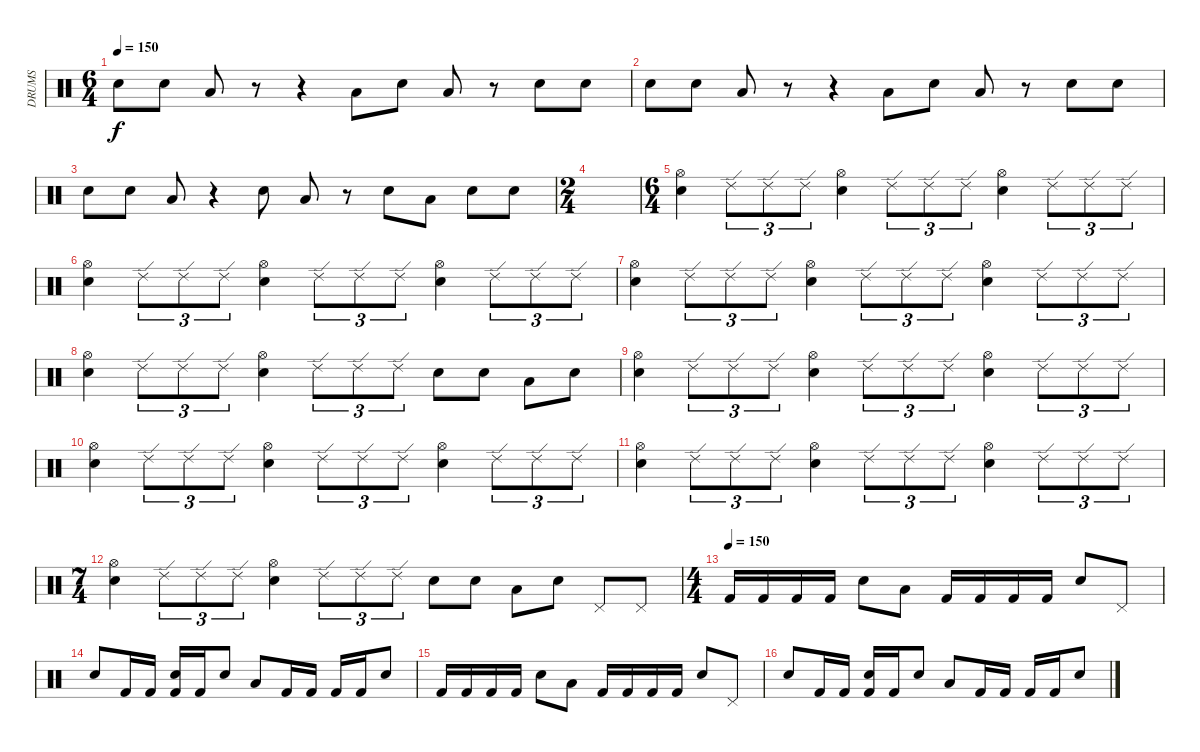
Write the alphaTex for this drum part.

\track ("DRUMS" "DRUMS") {instrument percussion}
\staff {score}
\articulation defaults
\ts (6 4)
\tempo 150
\clef neutral
\ks c "Electric Snare (hit)".8{dy f} "Electric Snare (hit)".8 "Low Tom (hit)".8
r.8 r.4 "Low Tom (hit)".8 "Electric Snare (hit)".8 "Low Tom (hit)".8 r.8 "Electric Snare (hit)".8 "Electric Snare (hit)".8 |
"Electric Snare (hit)".8 "Electric Snare (hit)".8 "Low Tom (hit)".8 r.8 r.4 "Low Tom (hit)".8 "Electric Snare (hit)".8 "Low Tom (hit)".8 r.8 "Electric Snare (hit)".8 "Electric Snare (hit)".8 |
"Electric Snare (hit)".8 "Electric Snare (hit)".8 "Low Tom (hit)".8 r.4 "Electric Snare (hit)".8 "Low Tom (hit)".8 r.8 "Electric Snare (hit)".8 "Low Tom (hit)".8 "Electric Snare (hit)".8 "Electric Snare (hit)".8 |
\ts (2 4)
|
\ts (6 4)
("Electric Snare (hit)" "Hi-Hat (open)").4 "Ride (edge) 2".8{tu (3 2)} "Ride (edge) 2".8{tu (3 2)} "Ride (edge) 2".8{tu (3 2)} ("Electric Snare (hit)" "Hi-Hat (open)").4 "Ride (edge) 2".8{tu (3 2)} "Ride (edge) 2".8{tu (3 2)} "Ride (edge) 2".8{tu (3 2)} ("Electric Snare (hit)" "Hi-Hat (open)").4 "Ride (edge) 2".8{tu (3 2)} "Ride (edge) 2".8{tu (3 2)} "Ride (edge) 2".8{tu (3 2)} |
("Electric Snare (hit)" "Hi-Hat (open)").4 "Ride (edge) 2".8{tu (3 2)} "Ride (edge) 2".8{tu (3 2)} "Ride (edge) 2".8{tu (3 2)} ("Electric Snare (hit)" "Hi-Hat (open)").4 "Ride (edge) 2".8{tu (3 2)} "Ride (edge) 2".8{tu (3 2)} "Ride (edge) 2".8{tu (3 2)} ("Electric Snare (hit)" "Hi-Hat (open)").4 "Ride (edge) 2".8{tu (3 2)} "Ride (edge) 2".8{tu (3 2)} "Ride (edge) 2".8{tu (3 2)} |
("Electric Snare (hit)" "Hi-Hat (open)").4 "Ride (edge) 2".8{tu (3 2)} "Ride (edge) 2".8{tu (3 2)} "Ride (edge) 2".8{tu (3 2)} ("Electric Snare (hit)" "Hi-Hat (open)").4 "Ride (edge) 2".8{tu (3 2)} "Ride (edge) 2".8{tu (3 2)} "Ride (edge) 2".8{tu (3 2)} ("Electric Snare (hit)" "Hi-Hat (open)").4 "Ride (edge) 2".8{tu (3 2)} "Ride (edge) 2".8{tu (3 2)} "Ride (edge) 2".8{tu (3 2)} |
("Electric Snare (hit)" "Hi-Hat (open)").4 "Ride (edge) 2".8{tu (3 2)} "Ride (edge) 2".8{tu (3 2)} "Ride (edge) 2".8{tu (3 2)} ("Electric Snare (hit)" "Hi-Hat (open)").4 "Ride (edge) 2".8{tu (3 2)} "Ride (edge) 2".8{tu (3 2)} "Ride (edge) 2".8{tu (3 2)} "Electric Snare (hit)".8 "Electric Snare (hit)".8 "Low Tom (hit)".8 "Electric Snare (hit)".8 |
("Electric Snare (hit)" "Hi-Hat (open)").4 "Ride (edge) 2".8{tu (3 2)} "Ride (edge) 2".8{tu (3 2)} "Ride (edge) 2".8{tu (3 2)} ("Electric Snare (hit)" "Hi-Hat (open)").4 "Ride (edge) 2".8{tu (3 2)} "Ride (edge) 2".8{tu (3 2)} "Ride (edge) 2".8{tu (3 2)} ("Electric Snare (hit)" "Hi-Hat (open)").4 "Ride (edge) 2".8{tu (3 2)} "Ride (edge) 2".8{tu (3 2)} "Ride (edge) 2".8{tu (3 2)} |
("Electric Snare (hit)" "Hi-Hat (open)").4 "Ride (edge) 2".8{tu (3 2)} "Ride (edge) 2".8{tu (3 2)} "Ride (edge) 2".8{tu (3 2)} ("Electric Snare (hit)" "Hi-Hat (open)").4 "Ride (edge) 2".8{tu (3 2)} "Ride (edge) 2".8{tu (3 2)} "Ride (edge) 2".8{tu (3 2)} ("Electric Snare (hit)" "Hi-Hat (open)").4 "Ride (edge) 2".8{tu (3 2)} "Ride (edge) 2".8{tu (3 2)} "Ride (edge) 2".8{tu (3 2)} |
("Electric Snare (hit)" "Hi-Hat (open)").4 "Ride (edge) 2".8{tu (3 2)} "Ride (edge) 2".8{tu (3 2)} "Ride (edge) 2".8{tu (3 2)} ("Electric Snare (hit)" "Hi-Hat (open)").4 "Ride (edge) 2".8{tu (3 2)} "Ride (edge) 2".8{tu (3 2)} "Ride (edge) 2".8{tu (3 2)} ("Electric Snare (hit)" "Hi-Hat (open)").4 "Ride (edge) 2".8{tu (3 2)} "Ride (edge) 2".8{tu (3 2)} "Ride (edge) 2".8{tu (3 2)} |
\ts (7 4)
("Electric Snare (hit)" "Hi-Hat (open)").4 "Ride (edge) 2".8{tu (3 2)} "Ride (edge) 2".8{tu (3 2)} "Ride (edge) 2".8{tu (3 2)} ("Electric Snare (hit)" "Hi-Hat (open)").4 "Ride (edge) 2".8{tu (3 2)} "Ride (edge) 2".8{tu (3 2)} "Ride (edge) 2".8{tu (3 2)} "Electric Snare (hit)".8 "Electric Snare (hit)".8 "Low Tom (hit)".8 "Electric Snare (hit)".8 "Pedal Hi-Hat (hit)".8 "Pedal Hi-Hat (hit)".8 |
\ts (4 4)
\tempo (150)
"Kick (hit) 2".16 "Kick (hit) 2".16 "Kick (hit) 2".16 "Kick (hit) 2".16 "Electric Snare (hit)".8 "Low Tom (hit)".8 "Kick (hit) 2".16 "Kick (hit) 2".16 "Kick (hit) 2".16 "Kick (hit) 2".16 "Electric Snare (hit)".8 "Pedal Hi-Hat (hit)".8 |
"Electric Snare (hit)".8 "Kick (hit) 2".16 "Kick (hit) 2".16 ("Electric Snare (hit)" "Kick (hit) 2").16 "Kick (hit) 2".16 "Electric Snare (hit)".8 "Low Tom (hit)".8 "Kick (hit) 2".16 "Kick (hit) 2".16 "Kick (hit) 2".16 "Kick (hit) 2".16 "Electric Snare (hit)".8 |
"Kick (hit) 2".16 "Kick (hit) 2".16 "Kick (hit) 2".16 "Kick (hit) 2".16 "Electric Snare (hit)".8 "Low Tom (hit)".8 "Kick (hit) 2".16 "Kick (hit) 2".16 "Kick (hit) 2".16 "Kick (hit) 2".16 "Electric Snare (hit)".8 "Pedal Hi-Hat (hit)".8 |
"Electric Snare (hit)".8 "Kick (hit) 2".16 "Kick (hit) 2".16 ("Electric Snare (hit)" "Kick (hit) 2").16 "Kick (hit) 2".16 "Electric Snare (hit)".8 "Low Tom (hit)".8 "Kick (hit) 2".16 "Kick (hit) 2".16 "Kick (hit) 2".16 "Kick (hit) 2".16 "Electric Snare (hit)".8
